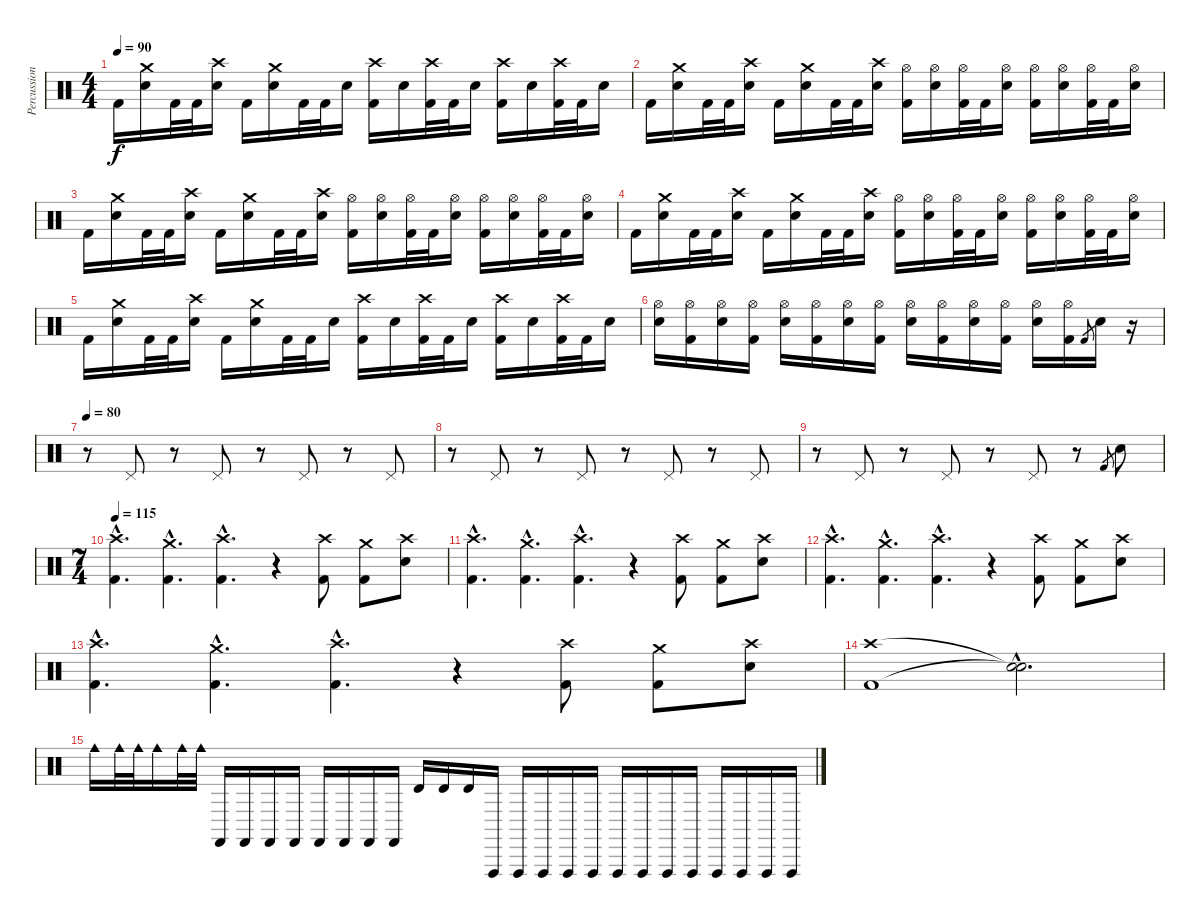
\track ("Percussion" "Percussion") {instrument percussion}
\staff {score}
\articulation defaults
\ts (4 4)
\tempo 90
\clef neutral
\ks c "Kick (hit) 2".16{dy f}
("Crash medium (hit)" "Snare (hit) 2").16 "Kick (hit) 2".32 "Kick (hit) 2".32 ("Crash high (hit)" "Snare (hit) 2").16 "Kick (hit) 2".16 ("Crash medium (hit)" "Snare (hit) 2").16 "Kick (hit) 2".32 "Kick (hit) 2".32 "Snare (hit) 2".16 ("Crash high (hit)" "Kick (hit) 2").16 "Snare (hit) 2".16 ("Crash high (hit)" "Kick (hit) 2").32 "Kick (hit) 2".32 "Snare (hit) 2".16 ("Crash high (hit)" "Kick (hit) 2").16 "Snare (hit) 2".16 ("Crash high (hit)" "Kick (hit) 2").32 "Kick (hit) 2".32 "Snare (hit) 2".16 |
"Kick (hit) 2".16 ("Crash medium (hit)" "Snare (hit) 2").16 "Kick (hit) 2".32 "Kick (hit) 2".32 ("Crash high (hit)" "Snare (hit) 2").16 "Kick (hit) 2".16 ("Crash medium (hit)" "Snare (hit) 2").16 "Kick (hit) 2".32 "Kick (hit) 2".32 ("Crash high (hit)" "Snare (hit) 2").16 ("Hi-Hat (open)" "Kick (hit) 2").16 ("Hi-Hat (open)" "Snare (hit) 2").16 ("Hi-Hat (open)" "Kick (hit) 2").32 "Kick (hit) 2".32 ("Hi-Hat (open)" "Snare (hit) 2").16 ("Hi-Hat (open)" "Kick (hit) 2").16 ("Hi-Hat (open)" "Snare (hit) 2").16 ("Hi-Hat (open)" "Kick (hit) 2").32 "Kick (hit) 2".32 ("Hi-Hat (open)" "Snare (hit) 2").16 |
"Kick (hit) 2".16 ("Crash medium (hit)" "Snare (hit) 2").16 "Kick (hit) 2".32 "Kick (hit) 2".32 ("Crash high (hit)" "Snare (hit) 2").16 "Kick (hit) 2".16 ("Crash medium (hit)" "Snare (hit) 2").16 "Kick (hit) 2".32 "Kick (hit) 2".32 ("Crash high (hit)" "Snare (hit) 2").16 ("Hi-Hat (open)" "Kick (hit) 2").16 ("Hi-Hat (open)" "Snare (hit) 2").16 ("Hi-Hat (open)" "Kick (hit) 2").32 "Kick (hit) 2".32 ("Hi-Hat (open)" "Snare (hit) 2").16 ("Hi-Hat (open)" "Kick (hit) 2").16 ("Hi-Hat (open)" "Snare (hit) 2").16 ("Hi-Hat (open)" "Kick (hit) 2").32 "Kick (hit) 2".32 ("Hi-Hat (open)" "Snare (hit) 2").16 |
"Kick (hit) 2".16 ("Crash medium (hit)" "Snare (hit) 2").16 "Kick (hit) 2".32 "Kick (hit) 2".32 ("Crash high (hit)" "Snare (hit) 2").16 "Kick (hit) 2".16 ("Crash medium (hit)" "Snare (hit) 2").16 "Kick (hit) 2".32 "Kick (hit) 2".32 ("Crash high (hit)" "Snare (hit) 2").16 ("Hi-Hat (open)" "Kick (hit) 2").16 ("Hi-Hat (open)" "Snare (hit) 2").16 ("Hi-Hat (open)" "Kick (hit) 2").32 "Kick (hit) 2".32 ("Hi-Hat (open)" "Snare (hit) 2").16 ("Hi-Hat (open)" "Kick (hit) 2").16 ("Hi-Hat (open)" "Snare (hit) 2").16 ("Hi-Hat (open)" "Kick (hit) 2").32 "Kick (hit) 2".32 ("Hi-Hat (open)" "Snare (hit) 2").16 |
"Kick (hit) 2".16 ("Crash medium (hit)" "Snare (hit) 2").16 "Kick (hit) 2".32 "Kick (hit) 2".32 ("Crash high (hit)" "Snare (hit) 2").16 "Kick (hit) 2".16 ("Crash medium (hit)" "Snare (hit) 2").16 "Kick (hit) 2".32 "Kick (hit) 2".32 "Snare (hit) 2".16 ("Crash high (hit)" "Kick (hit) 2").16 "Snare (hit) 2".16 ("Crash high (hit)" "Kick (hit) 2").32 "Kick (hit) 2".32 "Snare (hit) 2".16 ("Crash high (hit)" "Kick (hit) 2").16 "Snare (hit) 2".16 ("Crash high (hit)" "Kick (hit) 2").32 "Kick (hit) 2".32 "Snare (hit) 2".16 |
("Hi-Hat (open)" "Snare (hit) 2").16 ("Hi-Hat (open)" "Kick (hit) 2").16 ("Hi-Hat (open)" "Snare (hit) 2").16 ("Hi-Hat (open)" "Kick (hit) 2").16 ("Hi-Hat (open)" "Snare (hit) 2").16 ("Hi-Hat (open)" "Kick (hit) 2").16 ("Hi-Hat (open)" "Snare (hit) 2").16 ("Hi-Hat (open)" "Kick (hit) 2").16 ("Hi-Hat (open)" "Snare (hit) 2").16 ("Hi-Hat (open)" "Kick (hit) 2").16 ("Hi-Hat (open)" "Snare (hit) 2").16 ("Hi-Hat (open)" "Kick (hit) 2").16 ("Hi-Hat (open)" "Snare (hit) 2").16 ("Hi-Hat (open)" "Kick (hit) 2").16 "Kick (hit) 2".8{gr} "Snare (hit) 2".16 r.16 |
\tempo 80
r.8 "Pedal Hi-Hat (hit)".8 r.8 "Pedal Hi-Hat (hit)".8 r.8 "Pedal Hi-Hat (hit)".8 r.8 "Pedal Hi-Hat (hit)".8 |
r.8 "Pedal Hi-Hat (hit)".8 r.8 "Pedal Hi-Hat (hit)".8 r.8 "Pedal Hi-Hat (hit)".8 r.8 "Pedal Hi-Hat (hit)".8 |
r.8 "Pedal Hi-Hat (hit)".8 r.8 "Pedal Hi-Hat (hit)".8 r.8 "Pedal Hi-Hat (hit)".8 r.8 "Kick (hit) 2".8{gr} "Snare (hit) 2".8 |
\ts (7 4)
\tempo 115
("Crash high (hit)"{hac} "Kick (hit) 2"{hac}).4{d} ("Crash medium (hit)"{hac} "Kick (hit) 2"{hac}).4{d} ("Crash high (hit)"{hac} "Kick (hit) 2"{hac}).4{d} r.4 ("Kick (hit) 2" "Crash high (hit)").8 ("Kick (hit) 2" "Crash medium (hit)").8 ("Snare (hit) 2" "Crash high (hit)").8 |
("Crash high (hit)"{hac} "Kick (hit) 2"{hac}).4{d} ("Crash medium (hit)"{hac} "Kick (hit) 2"{hac}).4{d} ("Crash high (hit)"{hac} "Kick (hit) 2"{hac}).4{d} r.4 ("Kick (hit) 2" "Crash high (hit)").8 ("Kick (hit) 2" "Crash medium (hit)").8 ("Snare (hit) 2" "Crash high (hit)").8 |
("Crash high (hit)"{hac} "Kick (hit) 2"{hac}).4{d} ("Crash medium (hit)"{hac} "Kick (hit) 2"{hac}).4{d} ("Crash high (hit)"{hac} "Kick (hit) 2"{hac}).4{d} r.4 ("Kick (hit) 2" "Crash high (hit)").8 ("Kick (hit) 2" "Crash medium (hit)").8 ("Snare (hit) 2" "Crash high (hit)").8 |
("Crash high (hit)"{hac} "Kick (hit) 2"{hac}).4{d} ("Crash medium (hit)"{hac} "Kick (hit) 2"{hac}).4{d} ("Crash high (hit)"{hac} "Kick (hit) 2"{hac}).4{d} r.4 ("Kick (hit) 2" "Crash high (hit)").8 ("Kick (hit) 2" "Crash medium (hit)").8 ("Snare (hit) 2" "Crash high (hit)").8 |
("Kick (hit) 2" "Crash high (hit)").1 ("Snare (hit)"{hac t} "Snare (hit)"{hac t}).2{d} |
"Cowbell medium (hit)".16 "Cowbell medium (hit)".32 "Cowbell medium (hit)".32 "Cowbell medium (hit)".16 "Cowbell medium (hit)".32 "Cowbell medium (hit)".32 "Castanets (hit)".16 "Castanets (hit)".16 "Castanets (hit)".16 "Castanets (hit)".16 "Castanets (hit)".16 "Castanets (hit)".16 "Castanets (hit)".16 "Castanets (hit)".16 "Timbale high (hit)".16 "Timbale high (hit)".16 "Timbale high (hit)".16 "Vibraslap (hit)".16 "Vibraslap (hit)".16 "Vibraslap (hit)".16 "Vibraslap (hit)".16 "Vibraslap (hit)".16 "Vibraslap (hit)".16 "Vibraslap (hit)".16 "Vibraslap (hit)".16 "Vibraslap (hit)".16 "Vibraslap (hit)".16 "Vibraslap (hit)".16 "Vibraslap (hit)".16 "Vibraslap (hit)".16
